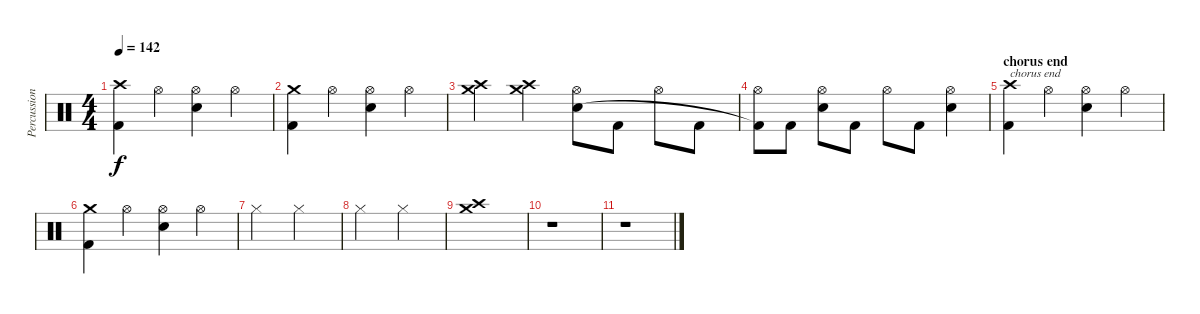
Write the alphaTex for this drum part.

\track ("Percussion" "Percussion") {instrument percussion}
\staff {score}
\articulation defaults
\ts (4 4)
\tempo 142
\clef neutral
\ks c
("Crash high (hit)" "Kick (hit) 2").4{dy f} "Hi-Hat (open)".4 ("Hi-Hat (open)" "Snare (hit) 2").4 "Hi-Hat (open)".4 |
("Crash medium (hit)" "Kick (hit) 2").4 "Hi-Hat (open)".4 ("Hi-Hat (open)" "Snare (hit) 2").4 "Hi-Hat (open)".4 |
("Crash medium (hit)" "Crash high (hit)").4 ("Crash medium (hit)" "Crash high (hit)").4 ("Hi-Hat (open)" "Snare (hit) 2").8 "Kick (hit) 2".8 "Hi-Hat (open)".8 "Kick (hit) 2".8 |
("Hi-Hat (open)" "Kick (hit) 2"{t}).8 "Kick (hit) 2".8 ("Hi-Hat (open)" "Snare (hit) 2").8 "Kick (hit) 2".8 "Hi-Hat (open)".8 "Kick (hit) 2".8 ("Hi-Hat (open)" "Snare (hit) 2").4 |
\section ("" "chorus end")
("Crash high (hit)" "Kick (hit) 2").4{txt "chorus end"} "Hi-Hat (open)".4 ("Hi-Hat (open)" "Snare (hit) 2").4 "Hi-Hat (open)".4 |
("Crash medium (hit)" "Kick (hit) 2").4 "Hi-Hat (open)".4 ("Hi-Hat (open)" "Snare (hit) 2").4 "Hi-Hat (open)".4 |
"Hi-Hat (closed)".2 "Hi-Hat (closed)".2 |
"Hi-Hat (closed)".2 "Hi-Hat (closed)".2 |
("Crash medium (hit)" "Crash high (hit)").1 |
r.1 |
r.1
